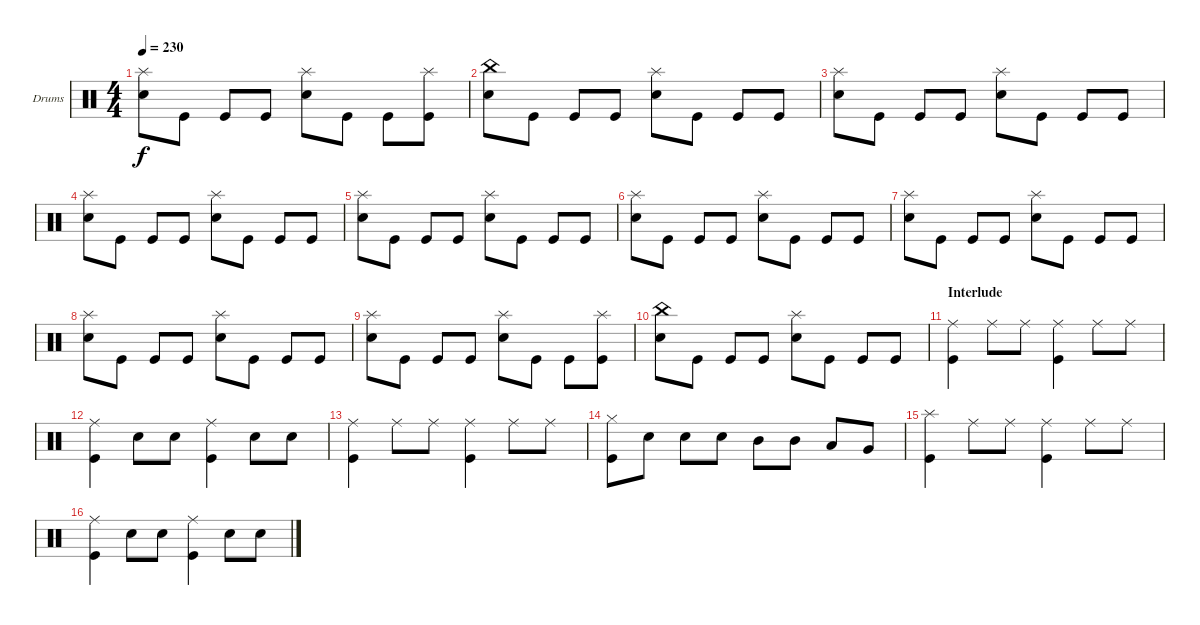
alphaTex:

\defaultSystemsLayout 4
\bracketExtendMode groupsimilarinstruments
\firstSystemTrackNameOrientation horizontal
\otherSystemsTrackNameOrientation horizontal
\track ("Drumkit" "Drums") {instrument percussion}
\staff {score}
\articulation defaults
\ts (4 4)
\tempo 230
\clef neutral
\ks c
("Splash (hit)" "Snare (hit) 2").8{dy f} "Kick (hit)".8 "Kick (hit)".8 "Kick (hit)".8 ("Snare (hit) 2" "Splash (hit)").8 "Kick (hit)".8 "Kick (hit)".8 ("Kick (hit)" "Splash (hit)").8 |
("Snare (hit) 2" "China (hit)").8 "Kick (hit)".8 "Kick (hit)".8 "Kick (hit)".8 ("Snare (hit) 2" "Splash (hit)").8 "Kick (hit)".8 "Kick (hit)".8 "Kick (hit)".8 |
("Splash (hit)" "Snare (hit) 2").8 "Kick (hit)".8 "Kick (hit)".8 "Kick (hit)".8 ("Snare (hit) 2" "Splash (hit)").8 "Kick (hit)".8 "Kick (hit)".8 "Kick (hit)".8 |
("Splash (hit)" "Snare (hit) 2").8 "Kick (hit)".8 "Kick (hit)".8 "Kick (hit)".8 ("Snare (hit) 2" "Splash (hit)").8 "Kick (hit)".8 "Kick (hit)".8 "Kick (hit)".8 |
("Splash (hit)" "Snare (hit) 2").8 "Kick (hit)".8 "Kick (hit)".8 "Kick (hit)".8 ("Snare (hit) 2" "Splash (hit)").8 "Kick (hit)".8 "Kick (hit)".8 "Kick (hit)".8 |
("Splash (hit)" "Snare (hit) 2").8 "Kick (hit)".8 "Kick (hit)".8 "Kick (hit)".8 ("Snare (hit) 2" "Splash (hit)").8 "Kick (hit)".8 "Kick (hit)".8 "Kick (hit)".8 |
("Splash (hit)" "Snare (hit) 2").8 "Kick (hit)".8 "Kick (hit)".8 "Kick (hit)".8 ("Snare (hit) 2" "Splash (hit)").8 "Kick (hit)".8 "Kick (hit)".8 "Kick (hit)".8 |
("Splash (hit)" "Snare (hit) 2").8 "Kick (hit)".8 "Kick (hit)".8 "Kick (hit)".8 ("Snare (hit) 2" "Splash (hit)").8 "Kick (hit)".8 "Kick (hit)".8 "Kick (hit)".8 |
("Splash (hit)" "Snare (hit) 2").8 "Kick (hit)".8 "Kick (hit)".8 "Kick (hit)".8 ("Snare (hit) 2" "Splash (hit)").8 "Kick (hit)".8 "Kick (hit)".8 ("Kick (hit)" "Splash (hit)").8 |
("Snare (hit) 2" "China (hit)").8 "Kick (hit)".8 "Kick (hit)".8 "Kick (hit)".8 ("Snare (hit) 2" "Splash (hit)").8 "Kick (hit)".8 "Kick (hit)".8 "Kick (hit)".8 |
\section ("" "Interlude")
("Kick (hit)" "Ride (middle)").4 "Ride (middle)".8 "Ride (middle)".8 ("Kick (hit)" "Ride (middle)").4 "Ride (middle)".8 "Ride (middle)".8 |
("Kick (hit)" "Ride (middle)").4 "Snare (hit) 2".8 "Snare (hit) 2".8 ("Kick (hit)" "Ride (middle)").4 "Snare (hit) 2".8 "Snare (hit) 2".8 |
("Kick (hit)" "Ride (middle)").4 "Ride (middle)".8 "Ride (middle)".8 ("Kick (hit)" "Ride (middle)").4 "Ride (middle)".8 "Ride (middle)".8 |
("Hi-Hat (closed)" "Kick (hit)").8 "Snare (hit) 2".8 "Snare (hit) 2".8 "Snare (hit) 2".8 "Mid Tom (hit)".8 "Mid Tom (hit)".8 "Low Tom (hit)".8 "Very Low Tom (hit)".8 |
("Kick (hit)" "Splash (hit)").4 "Ride (middle)".8 "Ride (middle)".8 ("Kick (hit)" "Ride (middle)").4 "Ride (middle)".8 "Ride (middle)".8 |
("Kick (hit)" "Ride (middle)").4 "Snare (hit) 2".8 "Snare (hit) 2".8 ("Kick (hit)" "Ride (middle)").4 "Snare (hit) 2".8 "Snare (hit) 2".8
